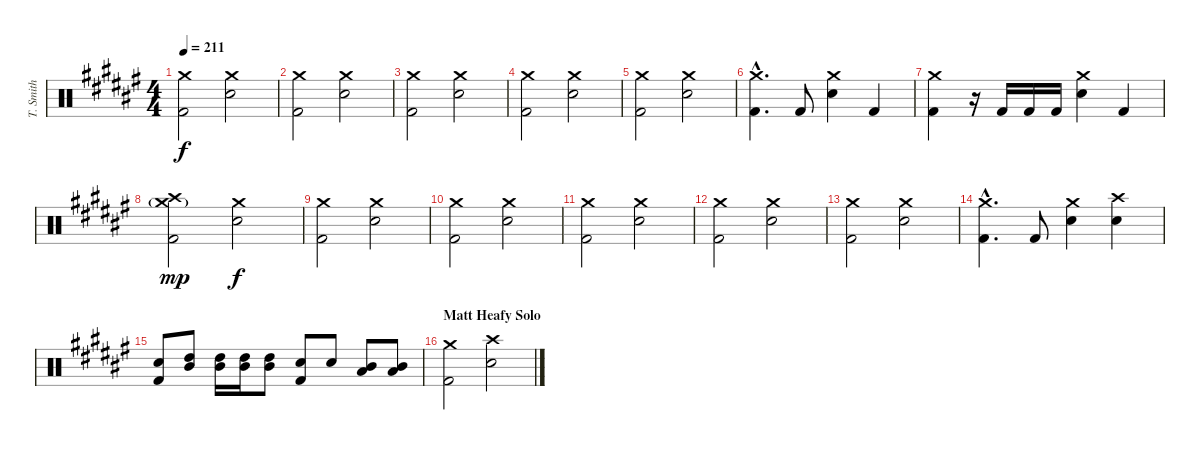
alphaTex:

\track ("T. Smith" "T. Smith") {instrument percussion}
\staff {score}
\articulation defaults
\ts (4 4)
\tempo 211
\clef neutral
\ks d#minor
("Crash medium (hit)" "Kick (hit) 2").2{dy f} ("Crash medium (hit)" "Electric Snare (hit)").2 |
("Crash medium (hit)" "Kick (hit) 2").2 ("Crash medium (hit)" "Electric Snare (hit)").2 |
("Crash medium (hit)" "Kick (hit) 2").2 ("Crash medium (hit)" "Electric Snare (hit)").2 |
("Crash medium (hit)" "Kick (hit) 2").2 ("Crash medium (hit)" "Electric Snare (hit)").2 |
("Crash medium (hit)" "Kick (hit) 2").2 ("Crash medium (hit)" "Electric Snare (hit)").2 |
("Crash medium (hit)"{hac} "Kick (hit) 2"{hac}).4{d} "Kick (hit) 2".8 ("Crash medium (hit)" "Electric Snare (hit)").4 "Kick (hit) 2".4 |
("Crash medium (hit)" "Kick (hit) 2").4 r.16 "Kick (hit) 2".16 "Kick (hit) 2".16 "Kick (hit) 2".16 ("Crash medium (hit)" "Electric Snare (hit)").4 "Kick (hit) 2".4 |
("Crash medium (hit)"{g} "Crash high (hit)" "Kick (hit) 2").2{dy mp} ("Crash medium (hit)" "Electric Snare (hit)").2{dy f} |
("Crash medium (hit)" "Kick (hit) 2").2 ("Crash medium (hit)" "Electric Snare (hit)").2 |
("Crash medium (hit)" "Kick (hit) 2").2 ("Crash medium (hit)" "Electric Snare (hit)").2 |
("Crash medium (hit)" "Kick (hit) 2").2 ("Crash medium (hit)" "Electric Snare (hit)").2 |
("Crash medium (hit)" "Kick (hit) 2").2 ("Crash medium (hit)" "Electric Snare (hit)").2 |
("Crash medium (hit)" "Kick (hit) 2").2 ("Crash medium (hit)" "Electric Snare (hit)").2 |
("Crash medium (hit)"{hac} "Kick (hit) 2"{hac}).4{d} "Kick (hit) 2".8 ("Crash medium (hit)" "Electric Snare (hit)").4 ("Crash high (hit)" "Electric Snare (hit)").4 |
("Electric Snare (hit)" "Kick (hit) 2").8 ("High Tom (hit)" "Mid Tom (hit)").8 ("High Tom (hit)" "Mid Tom (hit)").16 ("High Tom (hit)" "Mid Tom (hit)").16 ("High Tom (hit)" "Mid Tom (hit)").8 ("Electric Snare (hit)" "Kick (hit) 2").8 "Electric Snare (hit)".8 ("Mid Tom (hit)" "Low Tom (hit)").8 ("Mid Tom (hit)" "Low Tom (hit)").8 |
\section ("" "Matt Heafy Solo")
("Crash medium (hit)" "Kick (hit) 2").2 ("Crash high (hit)" "Electric Snare (hit)").2
